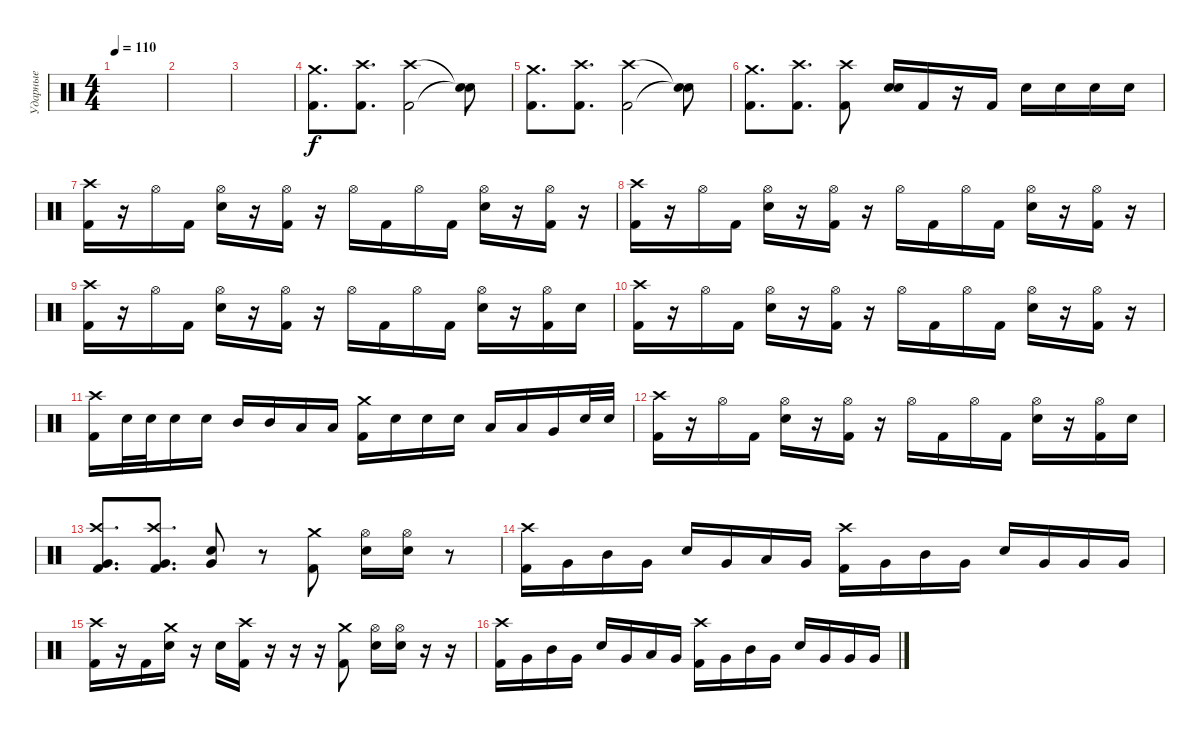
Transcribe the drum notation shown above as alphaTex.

\track ("Ударные" "Ударные") {instrument percussion}
\staff {score}
\articulation defaults
\ts (4 4)
\tempo 110
\clef neutral
\ks c
|
|
|
("Crash medium (hit)" "Kick (hit) 2").8{d} ("Crash high (hit)" "Kick (hit) 2").8{d} ("Crash high (hit)" "Kick (hit) 2").2 ("Snare (hit)"{t} "Snare (hit)"{t}).8 |
("Crash medium (hit)" "Kick (hit) 2").8{d} ("Crash high (hit)" "Kick (hit) 2").8{d} ("Crash high (hit)" "Kick (hit) 2").2 ("Snare (hit)"{t} "Snare (hit)"{t}).8 |
("Crash medium (hit)" "Kick (hit) 2").8{d} ("Crash high (hit)" "Kick (hit) 2").8{d} ("Crash high (hit)" "Kick (hit) 2").8 ("Snare (hit) 2" "Snare (hit) 2").16 "Kick (hit) 2".16 r.16 "Kick (hit) 2".16 "Snare (hit) 2".16 "Snare (hit) 2".16 "Snare (hit) 2".16 "Snare (hit) 2".16 |
("Crash high (hit)" "Kick (hit) 2").16 r.16 "Hi-Hat (open)".16 "Kick (hit) 2".16 ("Hi-Hat (open)" "Snare (hit) 2").16 r.16 ("Hi-Hat (open)" "Kick (hit) 2").16 r.16 "Hi-Hat (open)".16 "Kick (hit) 2".16 "Hi-Hat (open)".16 "Kick (hit) 2".16 ("Hi-Hat (open)" "Snare (hit) 2").16 r.16 ("Hi-Hat (open)" "Kick (hit) 2").16 r.16 |
("Crash high (hit)" "Kick (hit) 2").16 r.16 "Hi-Hat (open)".16 "Kick (hit) 2".16 ("Hi-Hat (open)" "Snare (hit) 2").16 r.16 ("Hi-Hat (open)" "Kick (hit) 2").16 r.16 "Hi-Hat (open)".16 "Kick (hit) 2".16 "Hi-Hat (open)".16 "Kick (hit) 2".16 ("Hi-Hat (open)" "Snare (hit) 2").16 r.16 ("Hi-Hat (open)" "Kick (hit) 2").16 r.16 |
("Crash high (hit)" "Kick (hit) 2").16 r.16 "Hi-Hat (open)".16 "Kick (hit) 2".16 ("Hi-Hat (open)" "Snare (hit) 2").16 r.16 ("Hi-Hat (open)" "Kick (hit) 2").16 r.16 "Hi-Hat (open)".16 "Kick (hit) 2".16 "Hi-Hat (open)".16 "Kick (hit) 2".16 ("Hi-Hat (open)" "Snare (hit) 2").16 r.16 ("Hi-Hat (open)" "Kick (hit) 2").16 "Snare (hit) 2".16 |
("Crash high (hit)" "Kick (hit) 2").16 r.16 "Hi-Hat (open)".16 "Kick (hit) 2".16 ("Hi-Hat (open)" "Snare (hit) 2").16 r.16 ("Hi-Hat (open)" "Kick (hit) 2").16 r.16 "Hi-Hat (open)".16 "Kick (hit) 2".16 "Hi-Hat (open)".16 "Kick (hit) 2".16 ("Hi-Hat (open)" "Snare (hit) 2").16 r.16 ("Hi-Hat (open)" "Kick (hit) 2").16 r.16 |
("Crash high (hit)" "Kick (hit) 2").16 "Snare (hit) 2".32 "Snare (hit) 2".32 "Snare (hit) 2".16 "Snare (hit) 2".16 "Mid Tom (hit)".16 "Mid Tom (hit)".16 "Low Tom (hit)".16 "Low Tom (hit)".16 ("Crash medium (hit)" "Kick (hit) 2").16 "Snare (hit) 2".16 "Snare (hit) 2".16 "Snare (hit) 2".16 "Low Tom (hit)".16 "Low Tom (hit)".16 "Very Low Tom (hit)".16 "Snare (hit) 2".32 "Snare (hit) 2".32 |
("Crash high (hit)" "Kick (hit) 2").16 r.16 "Hi-Hat (open)".16 "Kick (hit) 2".16 ("Hi-Hat (open)" "Snare (hit) 2").16 r.16 ("Hi-Hat (open)" "Kick (hit) 2").16 r.16 "Hi-Hat (open)".16 "Kick (hit) 2".16 "Hi-Hat (open)".16 "Kick (hit) 2".16 ("Hi-Hat (open)" "Snare (hit) 2").16 r.16 ("Hi-Hat (open)" "Kick (hit) 2").16 "Snare (hit) 2".16 |
("Crash high (hit)" "Very Low Tom (hit)" "Kick (hit) 2").8{d} ("Crash high (hit)" "Very Low Tom (hit)" "Kick (hit) 2").8{d} ("Snare (hit) 2" "Very Low Tom (hit)").8 r.8 ("Crash medium (hit)" "Kick (hit) 2").8 ("Hi-Hat (open)" "Snare (hit) 2").16 ("Hi-Hat (open)" "Snare (hit) 2").16 r.8 |
("Crash high (hit)" "Kick (hit) 2").16 "Very Low Tom (hit)".16 "Mid Tom (hit)".16 "Very Low Tom (hit)".16 "Snare (hit) 2".16 "Very Low Tom (hit)".16 "Low Tom (hit)".16 "Very Low Tom (hit)".16 ("Crash high (hit)" "Kick (hit) 2").16 "Very Low Tom (hit)".16 "Mid Tom (hit)".16 "Very Low Tom (hit)".16 "Snare (hit) 2".16 "Very Low Tom (hit)".16 "Very Low Tom (hit)".16 "Very Low Tom (hit)".16 |
("Crash high (hit)" "Kick (hit) 2").16 r.16 "Kick (hit) 2".16 ("Crash medium (hit)" "Snare (hit) 2").16 r.16 "Snare (hit) 2".16 ("Crash high (hit)" "Kick (hit) 2").16 r.16 r.16 r.16 ("Crash medium (hit)" "Kick (hit) 2").8 ("Hi-Hat (open)" "Snare (hit) 2").16 ("Hi-Hat (open)" "Snare (hit) 2").16 r.16 r.16 |
("Crash high (hit)" "Kick (hit) 2").16 "Very Low Tom (hit)".16 "Mid Tom (hit)".16 "Very Low Tom (hit)".16 "Snare (hit) 2".16 "Very Low Tom (hit)".16 "Low Tom (hit)".16 "Very Low Tom (hit)".16 ("Crash high (hit)" "Kick (hit) 2").16 "Very Low Tom (hit)".16 "Mid Tom (hit)".16 "Very Low Tom (hit)".16 "Snare (hit) 2".16 "Very Low Tom (hit)".16 "Very Low Tom (hit)".16 "Very Low Tom (hit)".16
